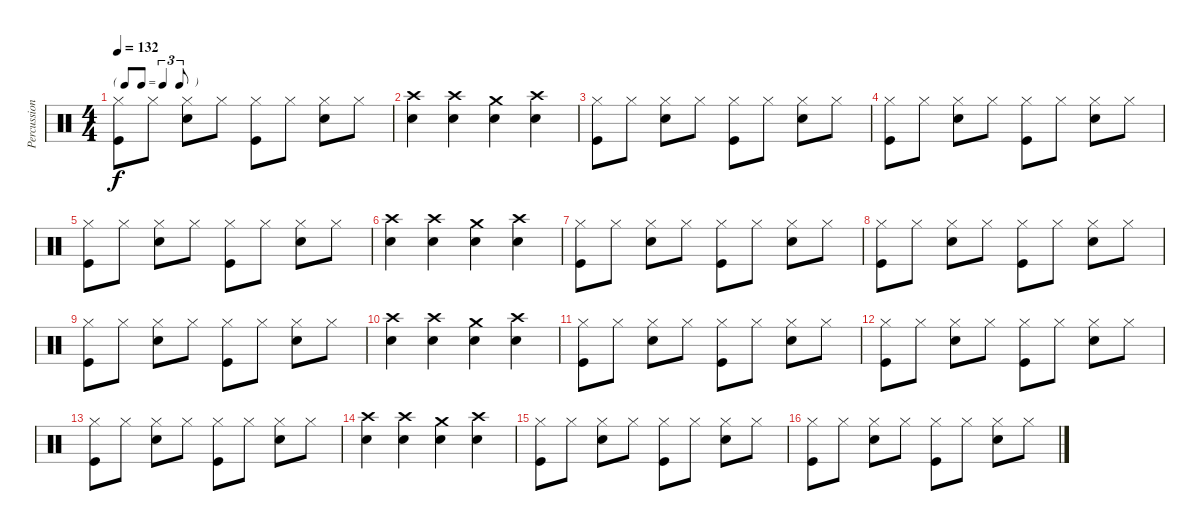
\track ("Percussion" "Percussion") {instrument percussion}
\staff {score}
\articulation defaults
\ts (4 4)
\tf triplet8th
\tempo 132
\clef neutral
\ks c
("Hi-Hat (closed)" "Kick (hit)").8{dy f} "Hi-Hat (closed)".8 ("Hi-Hat (closed)" "Snare (hit) 2").8 "Hi-Hat (closed)".8 ("Hi-Hat (closed)" "Kick (hit)").8 "Hi-Hat (closed)".8 ("Hi-Hat (closed)" "Snare (hit) 2").8 "Hi-Hat (closed)".8 |
("Crash high (hit)" "Snare (hit) 2").4 ("Crash high (hit)" "Snare (hit) 2").4 ("Crash medium (hit)" "Snare (hit) 2").4 ("Crash high (hit)" "Snare (hit) 2").4 |
("Hi-Hat (closed)" "Kick (hit)").8 "Hi-Hat (closed)".8 ("Hi-Hat (closed)" "Snare (hit) 2").8 "Hi-Hat (closed)".8 ("Hi-Hat (closed)" "Kick (hit)").8 "Hi-Hat (closed)".8 ("Hi-Hat (closed)" "Snare (hit) 2").8 "Hi-Hat (closed)".8 |
("Hi-Hat (closed)" "Kick (hit)").8 "Hi-Hat (closed)".8 ("Hi-Hat (closed)" "Snare (hit) 2").8 "Hi-Hat (closed)".8 ("Hi-Hat (closed)" "Kick (hit)").8 "Hi-Hat (closed)".8 ("Hi-Hat (closed)" "Snare (hit) 2").8 "Hi-Hat (closed)".8 |
("Hi-Hat (closed)" "Kick (hit)").8 "Hi-Hat (closed)".8 ("Hi-Hat (closed)" "Snare (hit) 2").8 "Hi-Hat (closed)".8 ("Hi-Hat (closed)" "Kick (hit)").8 "Hi-Hat (closed)".8 ("Hi-Hat (closed)" "Snare (hit) 2").8 "Hi-Hat (closed)".8 |
("Crash high (hit)" "Snare (hit) 2").4 ("Crash high (hit)" "Snare (hit) 2").4 ("Crash medium (hit)" "Snare (hit) 2").4 ("Crash high (hit)" "Snare (hit) 2").4 |
("Hi-Hat (closed)" "Kick (hit)").8 "Hi-Hat (closed)".8 ("Hi-Hat (closed)" "Snare (hit) 2").8 "Hi-Hat (closed)".8 ("Hi-Hat (closed)" "Kick (hit)").8 "Hi-Hat (closed)".8 ("Hi-Hat (closed)" "Snare (hit) 2").8 "Hi-Hat (closed)".8 |
("Hi-Hat (closed)" "Kick (hit)").8 "Hi-Hat (closed)".8 ("Hi-Hat (closed)" "Snare (hit) 2").8 "Hi-Hat (closed)".8 ("Hi-Hat (closed)" "Kick (hit)").8 "Hi-Hat (closed)".8 ("Hi-Hat (closed)" "Snare (hit) 2").8 "Hi-Hat (closed)".8 |
("Hi-Hat (closed)" "Kick (hit)").8 "Hi-Hat (closed)".8 ("Hi-Hat (closed)" "Snare (hit) 2").8 "Hi-Hat (closed)".8 ("Hi-Hat (closed)" "Kick (hit)").8 "Hi-Hat (closed)".8 ("Hi-Hat (closed)" "Snare (hit) 2").8 "Hi-Hat (closed)".8 |
("Crash high (hit)" "Snare (hit) 2").4 ("Crash high (hit)" "Snare (hit) 2").4 ("Crash medium (hit)" "Snare (hit) 2").4 ("Crash high (hit)" "Snare (hit) 2").4 |
("Hi-Hat (closed)" "Kick (hit)").8 "Hi-Hat (closed)".8 ("Hi-Hat (closed)" "Snare (hit) 2").8 "Hi-Hat (closed)".8 ("Hi-Hat (closed)" "Kick (hit)").8 "Hi-Hat (closed)".8 ("Hi-Hat (closed)" "Snare (hit) 2").8 "Hi-Hat (closed)".8 |
("Hi-Hat (closed)" "Kick (hit)").8 "Hi-Hat (closed)".8 ("Hi-Hat (closed)" "Snare (hit) 2").8 "Hi-Hat (closed)".8 ("Hi-Hat (closed)" "Kick (hit)").8 "Hi-Hat (closed)".8 ("Hi-Hat (closed)" "Snare (hit) 2").8 "Hi-Hat (closed)".8 |
("Hi-Hat (closed)" "Kick (hit)").8 "Hi-Hat (closed)".8 ("Hi-Hat (closed)" "Snare (hit) 2").8 "Hi-Hat (closed)".8 ("Hi-Hat (closed)" "Kick (hit)").8 "Hi-Hat (closed)".8 ("Hi-Hat (closed)" "Snare (hit) 2").8 "Hi-Hat (closed)".8 |
("Crash high (hit)" "Snare (hit) 2").4 ("Crash high (hit)" "Snare (hit) 2").4 ("Crash medium (hit)" "Snare (hit) 2").4 ("Crash high (hit)" "Snare (hit) 2").4 |
("Hi-Hat (closed)" "Kick (hit)").8 "Hi-Hat (closed)".8 ("Hi-Hat (closed)" "Snare (hit) 2").8 "Hi-Hat (closed)".8 ("Hi-Hat (closed)" "Kick (hit)").8 "Hi-Hat (closed)".8 ("Hi-Hat (closed)" "Snare (hit) 2").8 "Hi-Hat (closed)".8 |
("Hi-Hat (closed)" "Kick (hit)").8 "Hi-Hat (closed)".8 ("Hi-Hat (closed)" "Snare (hit) 2").8 "Hi-Hat (closed)".8 ("Hi-Hat (closed)" "Kick (hit)").8 "Hi-Hat (closed)".8 ("Hi-Hat (closed)" "Snare (hit) 2").8 "Hi-Hat (closed)".8
